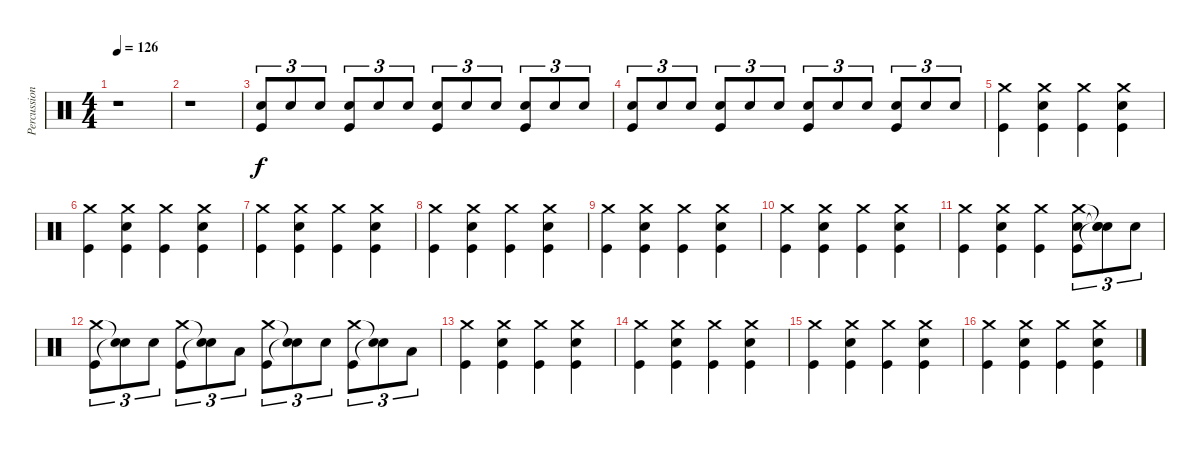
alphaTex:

\track ("Percussion" "Percussion") {instrument percussion}
\staff {score}
\articulation defaults
\ts (4 4)
\tempo 126
\clef neutral
\ks c
r.1{dy f} |
r.1 |
("Snare (hit) 2" "Kick (hit)").8{tu (3 2)} "Snare (hit) 2".8{tu (3 2)} "Snare (hit) 2".8{tu (3 2)} ("Snare (hit) 2" "Kick (hit)").8{tu (3 2)} "Snare (hit) 2".8{tu (3 2)} "Snare (hit) 2".8{tu (3 2)} ("Snare (hit) 2" "Kick (hit)").8{tu (3 2)} "Snare (hit) 2".8{tu (3 2)} "Snare (hit) 2".8{tu (3 2)} ("Snare (hit) 2" "Kick (hit)").8{tu (3 2)} "Snare (hit) 2".8{tu (3 2)} "Snare (hit) 2".8{tu (3 2)} |
("Snare (hit) 2" "Kick (hit)").8{tu (3 2)} "Snare (hit) 2".8{tu (3 2)} "Snare (hit) 2".8{tu (3 2)} ("Snare (hit) 2" "Kick (hit)").8{tu (3 2)} "Snare (hit) 2".8{tu (3 2)} "Snare (hit) 2".8{tu (3 2)} ("Snare (hit) 2" "Kick (hit)").8{tu (3 2)} "Snare (hit) 2".8{tu (3 2)} "Snare (hit) 2".8{tu (3 2)} ("Snare (hit) 2" "Kick (hit)").8{tu (3 2)} "Snare (hit) 2".8{tu (3 2)} "Snare (hit) 2".8{tu (3 2)} |
("Crash medium (hit)" "Kick (hit)").4 ("Crash medium (hit)" "Snare (hit) 2" "Kick (hit)").4 ("Crash medium (hit)" "Kick (hit)").4 ("Crash medium (hit)" "Snare (hit) 2" "Kick (hit)").4 |
("Crash medium (hit)" "Kick (hit)").4 ("Crash medium (hit)" "Snare (hit) 2" "Kick (hit)").4 ("Crash medium (hit)" "Kick (hit)").4 ("Crash medium (hit)" "Snare (hit) 2" "Kick (hit)").4 |
("Crash medium (hit)" "Kick (hit)").4 ("Crash medium (hit)" "Snare (hit) 2" "Kick (hit)").4 ("Crash medium (hit)" "Kick (hit)").4 ("Crash medium (hit)" "Snare (hit) 2" "Kick (hit)").4 |
("Crash medium (hit)" "Kick (hit)").4 ("Crash medium (hit)" "Snare (hit) 2" "Kick (hit)").4 ("Crash medium (hit)" "Kick (hit)").4 ("Crash medium (hit)" "Snare (hit) 2" "Kick (hit)").4 |
("Crash medium (hit)" "Kick (hit)").4 ("Crash medium (hit)" "Snare (hit) 2" "Kick (hit)").4 ("Crash medium (hit)" "Kick (hit)").4 ("Crash medium (hit)" "Snare (hit) 2" "Kick (hit)").4 |
("Crash medium (hit)" "Kick (hit)").4 ("Crash medium (hit)" "Snare (hit) 2" "Kick (hit)").4 ("Crash medium (hit)" "Kick (hit)").4 ("Crash medium (hit)" "Snare (hit) 2" "Kick (hit)").4 |
("Crash medium (hit)" "Kick (hit)").4 ("Crash medium (hit)" "Snare (hit) 2" "Kick (hit)").4 ("Crash medium (hit)" "Kick (hit)").4 ("Crash medium (hit)" "Snare (hit) 2" "Kick (hit)").8{tu (3 2)} ("Snare (hit)"{t} "Snare (hit)"{t} "Snare (hit)"{t}).8{tu (3 2)} "Snare (hit) 2".8{tu (3 2)} |
("Crash medium (hit)" "Kick (hit)").8{tu (3 2)} ("Snare (hit)"{t} "Snare (hit)"{t}).8{tu (3 2)} "Snare (hit) 2".8{tu (3 2)} ("Crash medium (hit)" "Kick (hit)").8{tu (3 2)} ("Snare (hit)"{t} "Snare (hit)"{t}).8{tu (3 2)} "Low Tom (hit)".8{tu (3 2)} ("Crash medium (hit)" "Kick (hit)").8{tu (3 2)} ("Snare (hit)"{t} "Snare (hit)"{t}).8{tu (3 2)} "Snare (hit) 2".8{tu (3 2)} ("Crash medium (hit)" "Kick (hit)").8{tu (3 2)} ("Snare (hit)"{t} "Snare (hit)"{t}).8{tu (3 2)} "Low Tom (hit)".8{tu (3 2)} |
("Crash medium (hit)" "Kick (hit)").4 ("Crash medium (hit)" "Snare (hit) 2" "Kick (hit)").4 ("Crash medium (hit)" "Kick (hit)").4 ("Crash medium (hit)" "Snare (hit) 2" "Kick (hit)").4 |
("Crash medium (hit)" "Kick (hit)").4 ("Crash medium (hit)" "Snare (hit) 2" "Kick (hit)").4 ("Crash medium (hit)" "Kick (hit)").4 ("Crash medium (hit)" "Snare (hit) 2" "Kick (hit)").4 |
("Crash medium (hit)" "Kick (hit)").4 ("Crash medium (hit)" "Snare (hit) 2" "Kick (hit)").4 ("Crash medium (hit)" "Kick (hit)").4 ("Crash medium (hit)" "Snare (hit) 2" "Kick (hit)").4 |
("Crash medium (hit)" "Kick (hit)").4 ("Crash medium (hit)" "Snare (hit) 2" "Kick (hit)").4 ("Crash medium (hit)" "Kick (hit)").4 ("Crash medium (hit)" "Snare (hit) 2" "Kick (hit)").4
